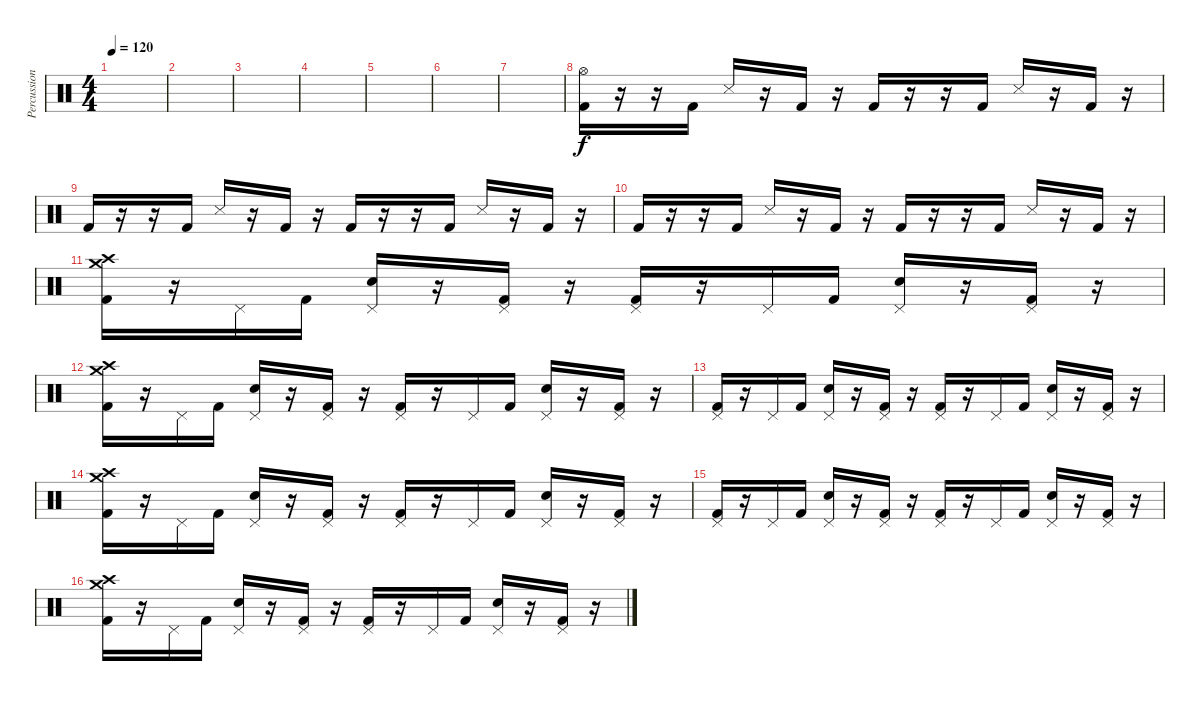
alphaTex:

\track ("Percussion" "Percussion") {instrument percussion}
\staff {score}
\articulation defaults
\ts (4 4)
\tempo 120
\clef neutral
\ks c
|
|
|
|
|
|
|
("Hi-Hat (open)" "Kick (hit) 2").16 r.16 r.16 "Kick (hit) 2".16 "Snare (side stick) 3".16 r.16 "Kick (hit) 2".16 r.16 "Kick (hit) 2".16 r.16 r.16 "Kick (hit) 2".16 "Snare (side stick) 3".16 r.16 "Kick (hit) 2".16 r.16 |
"Kick (hit) 2".16 r.16 r.16 "Kick (hit) 2".16 "Snare (side stick) 3".16 r.16 "Kick (hit) 2".16 r.16 "Kick (hit) 2".16 r.16 r.16 "Kick (hit) 2".16 "Snare (side stick) 3".16 r.16 "Kick (hit) 2".16 r.16 |
"Kick (hit) 2".16 r.16 r.16 "Kick (hit) 2".16 "Snare (side stick) 3".16 r.16 "Kick (hit) 2".16 r.16 "Kick (hit) 2".16 r.16 r.16 "Kick (hit) 2".16 "Snare (side stick) 3".16 r.16 "Kick (hit) 2".16 r.16 |
("Crash medium (hit)" "Crash high (hit)" "Kick (hit) 2").16 r.16 "Pedal Hi-Hat (hit)".16 "Kick (hit) 2".16 ("Pedal Hi-Hat (hit)" "Snare (hit) 2").16 r.16 ("Pedal Hi-Hat (hit)" "Kick (hit) 2").16 r.16 ("Pedal Hi-Hat (hit)" "Kick (hit) 2").16 r.16 "Pedal Hi-Hat (hit)".16 "Kick (hit) 2".16 ("Pedal Hi-Hat (hit)" "Snare (hit) 2").16 r.16 ("Pedal Hi-Hat (hit)" "Kick (hit) 2").16 r.16 |
("Crash medium (hit)" "Crash high (hit)" "Kick (hit) 2").16 r.16 "Pedal Hi-Hat (hit)".16 "Kick (hit) 2".16 ("Pedal Hi-Hat (hit)" "Snare (hit) 2").16 r.16 ("Pedal Hi-Hat (hit)" "Kick (hit) 2").16 r.16 ("Pedal Hi-Hat (hit)" "Kick (hit) 2").16 r.16 "Pedal Hi-Hat (hit)".16 "Kick (hit) 2".16 ("Pedal Hi-Hat (hit)" "Snare (hit) 2").16 r.16 ("Pedal Hi-Hat (hit)" "Kick (hit) 2").16 r.16 |
("Pedal Hi-Hat (hit)" "Kick (hit) 2").16 r.16 "Pedal Hi-Hat (hit)".16 "Kick (hit) 2".16 ("Pedal Hi-Hat (hit)" "Snare (hit) 2").16 r.16 ("Pedal Hi-Hat (hit)" "Kick (hit) 2").16 r.16 ("Pedal Hi-Hat (hit)" "Kick (hit) 2").16 r.16 "Pedal Hi-Hat (hit)".16 "Kick (hit) 2".16 ("Pedal Hi-Hat (hit)" "Snare (hit) 2").16 r.16 ("Pedal Hi-Hat (hit)" "Kick (hit) 2").16 r.16 |
("Crash medium (hit)" "Crash high (hit)" "Kick (hit) 2").16 r.16 "Pedal Hi-Hat (hit)".16 "Kick (hit) 2".16 ("Pedal Hi-Hat (hit)" "Snare (hit) 2").16 r.16 ("Pedal Hi-Hat (hit)" "Kick (hit) 2").16 r.16 ("Pedal Hi-Hat (hit)" "Kick (hit) 2").16 r.16 "Pedal Hi-Hat (hit)".16 "Kick (hit) 2".16 ("Pedal Hi-Hat (hit)" "Snare (hit) 2").16 r.16 ("Pedal Hi-Hat (hit)" "Kick (hit) 2").16 r.16 |
("Pedal Hi-Hat (hit)" "Kick (hit) 2").16 r.16 "Pedal Hi-Hat (hit)".16 "Kick (hit) 2".16 ("Pedal Hi-Hat (hit)" "Snare (hit) 2").16 r.16 ("Pedal Hi-Hat (hit)" "Kick (hit) 2").16 r.16 ("Pedal Hi-Hat (hit)" "Kick (hit) 2").16 r.16 "Pedal Hi-Hat (hit)".16 "Kick (hit) 2".16 ("Pedal Hi-Hat (hit)" "Snare (hit) 2").16 r.16 ("Pedal Hi-Hat (hit)" "Kick (hit) 2").16 r.16 |
("Crash medium (hit)" "Crash high (hit)" "Kick (hit) 2").16 r.16 "Pedal Hi-Hat (hit)".16 "Kick (hit) 2".16 ("Pedal Hi-Hat (hit)" "Snare (hit) 2").16 r.16 ("Pedal Hi-Hat (hit)" "Kick (hit) 2").16 r.16 ("Pedal Hi-Hat (hit)" "Kick (hit) 2").16 r.16 "Pedal Hi-Hat (hit)".16 "Kick (hit) 2".16 ("Pedal Hi-Hat (hit)" "Snare (hit) 2").16 r.16 ("Pedal Hi-Hat (hit)" "Kick (hit) 2").16 r.16
